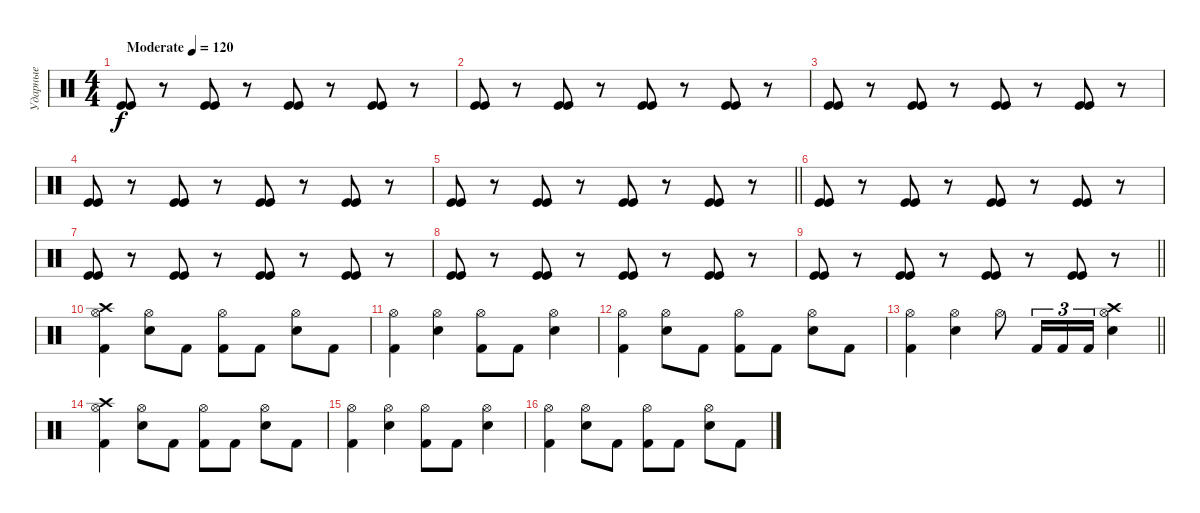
\track ("Ударные" "Ударные") {instrument percussion}
\staff {score}
\articulation defaults
\ts (4 4)
\tempo (120 "Moderate")
\clef neutral
\ks c
("Kick (hit)" "Kick (hit)").8{dy f} r.8 ("Kick (hit)" "Kick (hit)").8 r.8 ("Kick (hit)" "Kick (hit)").8 r.8 ("Kick (hit)" "Kick (hit)").8 r.8 |
("Kick (hit)" "Kick (hit)").8 r.8 ("Kick (hit)" "Kick (hit)").8 r.8 ("Kick (hit)" "Kick (hit)").8 r.8 ("Kick (hit)" "Kick (hit)").8 r.8 |
("Kick (hit)" "Kick (hit)").8 r.8 ("Kick (hit)" "Kick (hit)").8 r.8 ("Kick (hit)" "Kick (hit)").8 r.8 ("Kick (hit)" "Kick (hit)").8 r.8 |
("Kick (hit)" "Kick (hit)").8 r.8 ("Kick (hit)" "Kick (hit)").8 r.8 ("Kick (hit)" "Kick (hit)").8 r.8 ("Kick (hit)" "Kick (hit)").8 r.8 |
\barLineRight lightlight
("Kick (hit)" "Kick (hit)").8 r.8 ("Kick (hit)" "Kick (hit)").8 r.8 ("Kick (hit)" "Kick (hit)").8 r.8 ("Kick (hit)" "Kick (hit)").8 r.8 |
("Kick (hit)" "Kick (hit)").8 r.8 ("Kick (hit)" "Kick (hit)").8 r.8 ("Kick (hit)" "Kick (hit)").8 r.8 ("Kick (hit)" "Kick (hit)").8 r.8 |
("Kick (hit)" "Kick (hit)").8 r.8 ("Kick (hit)" "Kick (hit)").8 r.8 ("Kick (hit)" "Kick (hit)").8 r.8 ("Kick (hit)" "Kick (hit)").8 r.8 |
("Kick (hit)" "Kick (hit)").8 r.8 ("Kick (hit)" "Kick (hit)").8 r.8 ("Kick (hit)" "Kick (hit)").8 r.8 ("Kick (hit)" "Kick (hit)").8 r.8 |
\barLineRight lightlight
("Kick (hit)" "Kick (hit)").8 r.8 ("Kick (hit)" "Kick (hit)").8 r.8 ("Kick (hit)" "Kick (hit)").8 r.8 ("Kick (hit)" "Kick (hit)").8 r.8 |
("Kick (hit) 2" "Hi-Hat (open)" "Crash high (hit)").4 ("Snare (hit) 2" "Hi-Hat (open)").8 "Kick (hit) 2".8 ("Kick (hit) 2" "Hi-Hat (open)").8 "Kick (hit) 2".8 ("Snare (hit) 2" "Hi-Hat (open)").8 "Kick (hit) 2".8 |
("Kick (hit) 2" "Hi-Hat (open)").4 ("Snare (hit) 2" "Hi-Hat (open)").4 ("Kick (hit) 2" "Hi-Hat (open)").8 "Kick (hit) 2".8 ("Snare (hit) 2" "Hi-Hat (open)").4 |
("Kick (hit) 2" "Hi-Hat (open)").4 ("Snare (hit) 2" "Hi-Hat (open)").8 "Kick (hit) 2".8 ("Kick (hit) 2" "Hi-Hat (open)").8 "Kick (hit) 2".8 ("Snare (hit) 2" "Hi-Hat (open)").8 "Kick (hit) 2".8 |
\barLineRight lightlight
("Kick (hit) 2" "Hi-Hat (open)").4 ("Snare (hit) 2" "Hi-Hat (open)").4 "Hi-Hat (open)".8 "Kick (hit) 2".16{tu (3 2)} "Kick (hit) 2".16{tu (3 2)} "Kick (hit) 2".16{tu (3 2)} ("Snare (hit) 2" "Hi-Hat (open)" "Crash high (hit)").4 |
("Kick (hit) 2" "Hi-Hat (open)" "Crash high (hit)").4 ("Snare (hit) 2" "Hi-Hat (open)").8 "Kick (hit) 2".8 ("Kick (hit) 2" "Hi-Hat (open)").8 "Kick (hit) 2".8 ("Snare (hit) 2" "Hi-Hat (open)").8 "Kick (hit) 2".8 |
("Kick (hit) 2" "Hi-Hat (open)").4 ("Snare (hit) 2" "Hi-Hat (open)").4 ("Kick (hit) 2" "Hi-Hat (open)").8 "Kick (hit) 2".8 ("Snare (hit) 2" "Hi-Hat (open)").4 |
("Kick (hit) 2" "Hi-Hat (open)").4 ("Snare (hit) 2" "Hi-Hat (open)").8 "Kick (hit) 2".8 ("Kick (hit) 2" "Hi-Hat (open)").8 "Kick (hit) 2".8 ("Snare (hit) 2" "Hi-Hat (open)").8 "Kick (hit) 2".8
